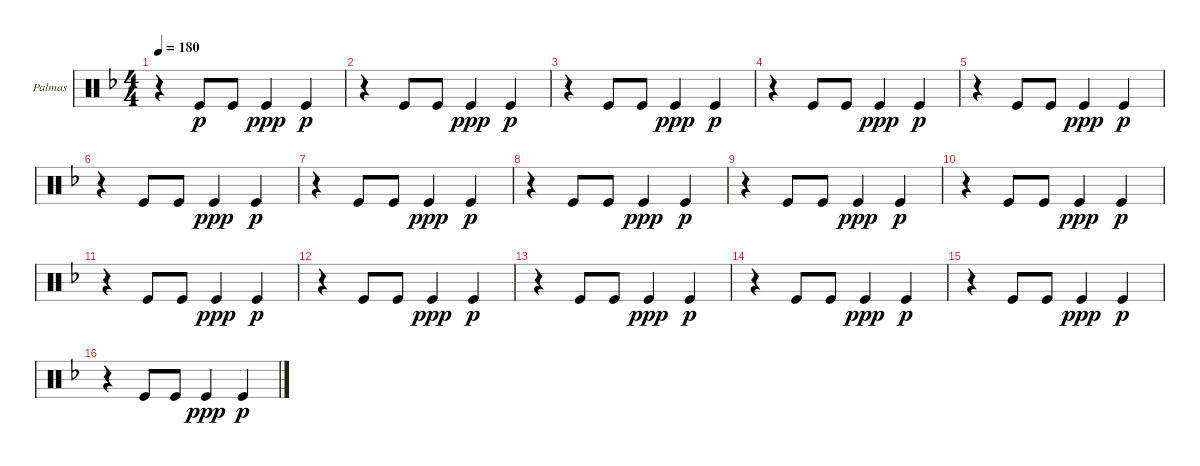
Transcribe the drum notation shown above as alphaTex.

\defaultSystemsLayout 4
\bracketExtendMode groupsimilarinstruments
\firstSystemTrackNameOrientation horizontal
\otherSystemsTrackNameOrientation horizontal
\track ("Palmas" "Palmas") {instrument percussion}
\staff {score}
\articulation defaults
\ts (4 4)
\tempo 180
\clef neutral
\ks f
r.4{dy p} "Kick (hit)".8 "Kick (hit)".8 "Kick (hit)".4{dy ppp} "Kick (hit)".4{dy p} |
r.4 "Kick (hit)".8 "Kick (hit)".8 "Kick (hit)".4{dy ppp} "Kick (hit)".4{dy p} |
r.4 "Kick (hit)".8 "Kick (hit)".8 "Kick (hit)".4{dy ppp} "Kick (hit)".4{dy p} |
r.4 "Kick (hit)".8 "Kick (hit)".8 "Kick (hit)".4{dy ppp} "Kick (hit)".4{dy p} |
r.4 "Kick (hit)".8 "Kick (hit)".8 "Kick (hit)".4{dy ppp} "Kick (hit)".4{dy p} |
r.4 "Kick (hit)".8 "Kick (hit)".8 "Kick (hit)".4{dy ppp} "Kick (hit)".4{dy p} |
r.4 "Kick (hit)".8 "Kick (hit)".8 "Kick (hit)".4{dy ppp} "Kick (hit)".4{dy p} |
r.4 "Kick (hit)".8 "Kick (hit)".8 "Kick (hit)".4{dy ppp} "Kick (hit)".4{dy p} |
r.4 "Kick (hit)".8 "Kick (hit)".8 "Kick (hit)".4{dy ppp} "Kick (hit)".4{dy p} |
r.4 "Kick (hit)".8 "Kick (hit)".8 "Kick (hit)".4{dy ppp} "Kick (hit)".4{dy p} |
r.4 "Kick (hit)".8 "Kick (hit)".8 "Kick (hit)".4{dy ppp} "Kick (hit)".4{dy p} |
r.4 "Kick (hit)".8 "Kick (hit)".8 "Kick (hit)".4{dy ppp} "Kick (hit)".4{dy p} |
r.4 "Kick (hit)".8 "Kick (hit)".8 "Kick (hit)".4{dy ppp} "Kick (hit)".4{dy p} |
r.4 "Kick (hit)".8 "Kick (hit)".8 "Kick (hit)".4{dy ppp} "Kick (hit)".4{dy p} |
r.4 "Kick (hit)".8 "Kick (hit)".8 "Kick (hit)".4{dy ppp} "Kick (hit)".4{dy p} |
r.4 "Kick (hit)".8 "Kick (hit)".8 "Kick (hit)".4{dy ppp} "Kick (hit)".4{dy p}
